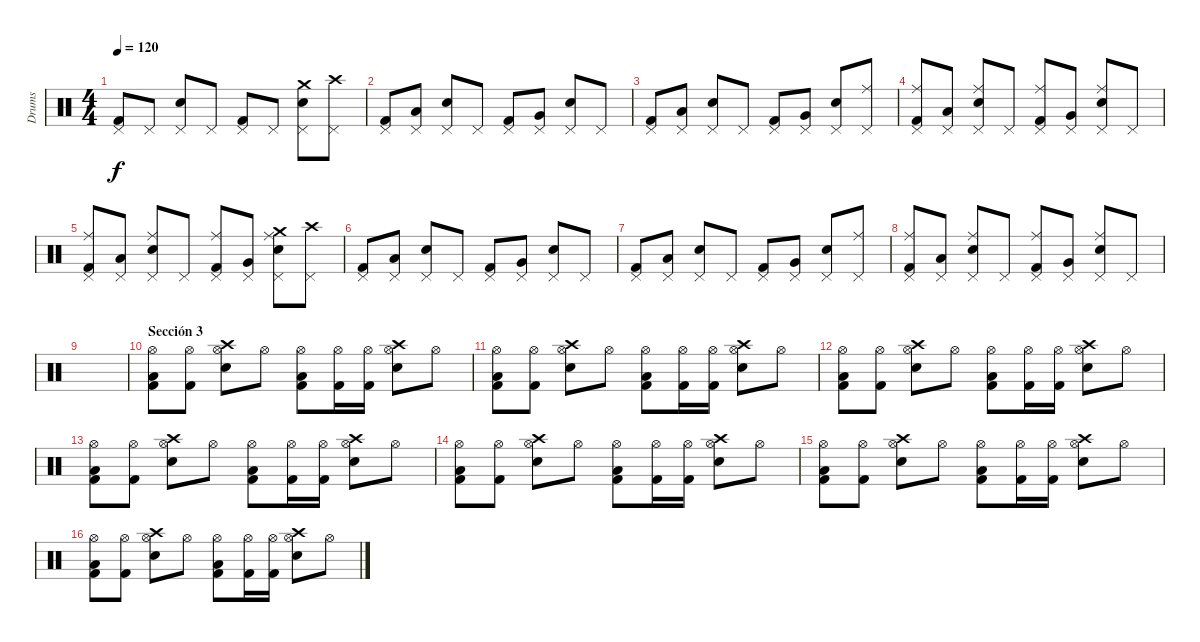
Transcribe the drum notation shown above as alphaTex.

\track ("Drums" "Drums") {instrument percussion}
\staff {score}
\articulation defaults
\ts (4 4)
\tempo 120
\clef neutral
\ks c
("Pedal Hi-Hat (hit)" "Kick (hit) 2").8{dy f} "Pedal Hi-Hat (hit)".8 ("Pedal Hi-Hat (hit)" "Snare (hit) 2").8 "Pedal Hi-Hat (hit)".8 ("Pedal Hi-Hat (hit)" "Kick (hit) 2").8 "Pedal Hi-Hat (hit)".8 ("Pedal Hi-Hat (hit)" "Crash medium (hit)" "Snare (hit) 2").8 ("Pedal Hi-Hat (hit)" "Crash high (hit)").8 |
("Pedal Hi-Hat (hit)" "Kick (hit) 2").8 ("Pedal Hi-Hat (hit)" "Low Tom (hit)").8 ("Pedal Hi-Hat (hit)" "Snare (hit) 2").8 "Pedal Hi-Hat (hit)".8 ("Pedal Hi-Hat (hit)" "Kick (hit) 2").8 ("Pedal Hi-Hat (hit)" "Very Low Tom (hit)").8 ("Pedal Hi-Hat (hit)" "Snare (hit) 2").8 "Pedal Hi-Hat (hit)".8 |
("Pedal Hi-Hat (hit)" "Kick (hit) 2").8 ("Pedal Hi-Hat (hit)" "Low Tom (hit)").8 ("Pedal Hi-Hat (hit)" "Snare (hit) 2").8 "Pedal Hi-Hat (hit)".8 ("Pedal Hi-Hat (hit)" "Kick (hit) 2").8 ("Pedal Hi-Hat (hit)" "Very Low Tom (hit)").8 ("Pedal Hi-Hat (hit)" "Snare (hit) 2").8 ("Pedal Hi-Hat (hit)" "Ride (middle)").8 |
("Ride (middle)" "Pedal Hi-Hat (hit)" "Kick (hit) 2").8 ("Pedal Hi-Hat (hit)" "Low Tom (hit)").8 ("Ride (middle)" "Pedal Hi-Hat (hit)" "Snare (hit) 2").8 "Pedal Hi-Hat (hit)".8 ("Ride (middle)" "Pedal Hi-Hat (hit)" "Kick (hit) 2").8 ("Pedal Hi-Hat (hit)" "Very Low Tom (hit)").8 ("Ride (middle)" "Pedal Hi-Hat (hit)" "Snare (hit) 2").8 "Pedal Hi-Hat (hit)".8 |
("Ride (middle)" "Pedal Hi-Hat (hit)" "Kick (hit) 2").8 ("Pedal Hi-Hat (hit)" "Low Tom (hit)").8 ("Ride (middle)" "Pedal Hi-Hat (hit)" "Snare (hit) 2").8 "Pedal Hi-Hat (hit)".8 ("Ride (middle)" "Pedal Hi-Hat (hit)" "Kick (hit) 2").8 ("Pedal Hi-Hat (hit)" "Very Low Tom (hit)").8 ("Ride (middle)" "Pedal Hi-Hat (hit)" "Crash medium (hit)" "Snare (hit) 2").8 ("Pedal Hi-Hat (hit)" "Crash high (hit)").8 |
("Pedal Hi-Hat (hit)" "Kick (hit) 2").8 ("Pedal Hi-Hat (hit)" "Low Tom (hit)").8 ("Pedal Hi-Hat (hit)" "Snare (hit) 2").8 "Pedal Hi-Hat (hit)".8 ("Pedal Hi-Hat (hit)" "Kick (hit) 2").8 ("Pedal Hi-Hat (hit)" "Very Low Tom (hit)").8 ("Pedal Hi-Hat (hit)" "Snare (hit) 2").8 "Pedal Hi-Hat (hit)".8 |
("Pedal Hi-Hat (hit)" "Kick (hit) 2").8 ("Pedal Hi-Hat (hit)" "Low Tom (hit)").8 ("Pedal Hi-Hat (hit)" "Snare (hit) 2").8 "Pedal Hi-Hat (hit)".8 ("Pedal Hi-Hat (hit)" "Kick (hit) 2").8 ("Pedal Hi-Hat (hit)" "Very Low Tom (hit)").8 ("Pedal Hi-Hat (hit)" "Snare (hit) 2").8 ("Pedal Hi-Hat (hit)" "Ride (middle)").8 |
("Ride (middle)" "Pedal Hi-Hat (hit)" "Kick (hit) 2").8 ("Pedal Hi-Hat (hit)" "Low Tom (hit)").8 ("Ride (middle)" "Pedal Hi-Hat (hit)" "Snare (hit) 2").8 "Pedal Hi-Hat (hit)".8 ("Ride (middle)" "Pedal Hi-Hat (hit)" "Kick (hit) 2").8 ("Pedal Hi-Hat (hit)" "Very Low Tom (hit)").8 ("Ride (middle)" "Pedal Hi-Hat (hit)" "Snare (hit) 2").8 "Pedal Hi-Hat (hit)".8 |
|
\section ("" "Sección 3")
("Hi-Hat (open)" "Low Tom (hit)" "Kick (hit) 2").8 ("Hi-Hat (open)" "Kick (hit) 2").8 ("Hi-Hat (open)" "Crash high (hit)" "Snare (hit) 2").8 "Hi-Hat (open)".8 ("Hi-Hat (open)" "Low Tom (hit)" "Kick (hit) 2").8 ("Hi-Hat (open)" "Kick (hit) 2").16 ("Hi-Hat (open)" "Kick (hit) 2").16 ("Hi-Hat (open)" "Crash high (hit)" "Snare (hit) 2").8 "Hi-Hat (open)".8 |
("Hi-Hat (open)" "Low Tom (hit)" "Kick (hit) 2").8 ("Hi-Hat (open)" "Kick (hit) 2").8 ("Hi-Hat (open)" "Crash high (hit)" "Snare (hit) 2").8 "Hi-Hat (open)".8 ("Hi-Hat (open)" "Low Tom (hit)" "Kick (hit) 2").8 ("Hi-Hat (open)" "Kick (hit) 2").16 ("Hi-Hat (open)" "Kick (hit) 2").16 ("Hi-Hat (open)" "Crash high (hit)" "Snare (hit) 2").8 "Hi-Hat (open)".8 |
("Hi-Hat (open)" "Low Tom (hit)" "Kick (hit) 2").8 ("Hi-Hat (open)" "Kick (hit) 2").8 ("Hi-Hat (open)" "Crash high (hit)" "Snare (hit) 2").8 "Hi-Hat (open)".8 ("Hi-Hat (open)" "Low Tom (hit)" "Kick (hit) 2").8 ("Hi-Hat (open)" "Kick (hit) 2").16 ("Hi-Hat (open)" "Kick (hit) 2").16 ("Hi-Hat (open)" "Crash high (hit)" "Snare (hit) 2").8 "Hi-Hat (open)".8 |
("Hi-Hat (open)" "Low Tom (hit)" "Kick (hit) 2").8 ("Hi-Hat (open)" "Kick (hit) 2").8 ("Hi-Hat (open)" "Crash high (hit)" "Snare (hit) 2").8 "Hi-Hat (open)".8 ("Hi-Hat (open)" "Low Tom (hit)" "Kick (hit) 2").8 ("Hi-Hat (open)" "Kick (hit) 2").16 ("Hi-Hat (open)" "Kick (hit) 2").16 ("Hi-Hat (open)" "Crash high (hit)" "Snare (hit) 2").8 "Hi-Hat (open)".8 |
("Hi-Hat (open)" "Low Tom (hit)" "Kick (hit) 2").8 ("Hi-Hat (open)" "Kick (hit) 2").8 ("Hi-Hat (open)" "Crash high (hit)" "Snare (hit) 2").8 "Hi-Hat (open)".8 ("Hi-Hat (open)" "Low Tom (hit)" "Kick (hit) 2").8 ("Hi-Hat (open)" "Kick (hit) 2").16 ("Hi-Hat (open)" "Kick (hit) 2").16 ("Hi-Hat (open)" "Crash high (hit)" "Snare (hit) 2").8 "Hi-Hat (open)".8 |
("Hi-Hat (open)" "Low Tom (hit)" "Kick (hit) 2").8 ("Hi-Hat (open)" "Kick (hit) 2").8 ("Hi-Hat (open)" "Crash high (hit)" "Snare (hit) 2").8 "Hi-Hat (open)".8 ("Hi-Hat (open)" "Low Tom (hit)" "Kick (hit) 2").8 ("Hi-Hat (open)" "Kick (hit) 2").16 ("Hi-Hat (open)" "Kick (hit) 2").16 ("Hi-Hat (open)" "Crash high (hit)" "Snare (hit) 2").8 "Hi-Hat (open)".8 |
("Hi-Hat (open)" "Low Tom (hit)" "Kick (hit) 2").8 ("Hi-Hat (open)" "Kick (hit) 2").8 ("Hi-Hat (open)" "Crash high (hit)" "Snare (hit) 2").8 "Hi-Hat (open)".8 ("Hi-Hat (open)" "Low Tom (hit)" "Kick (hit) 2").8 ("Hi-Hat (open)" "Kick (hit) 2").16 ("Hi-Hat (open)" "Kick (hit) 2").16 ("Hi-Hat (open)" "Crash high (hit)" "Snare (hit) 2").8 "Hi-Hat (open)".8
